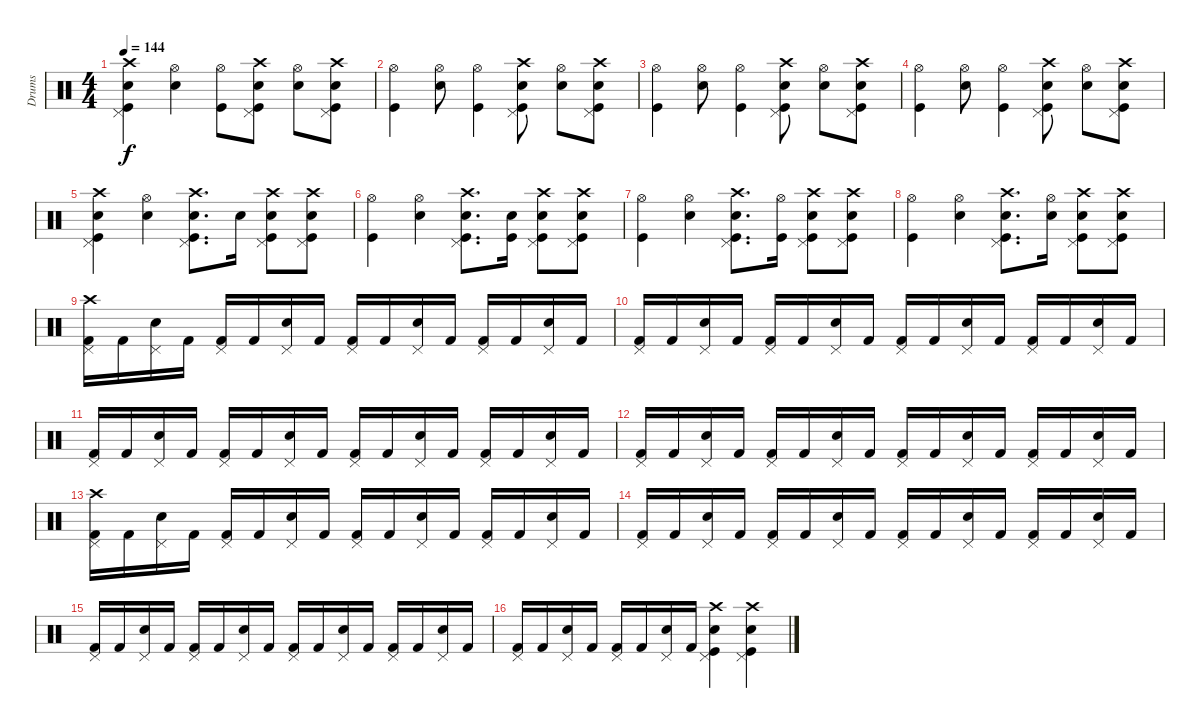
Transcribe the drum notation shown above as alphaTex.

\track ("Drums" "Drums") {instrument percussion}
\staff {score}
\articulation defaults
\ts (4 4)
\tempo 144
\clef neutral
\ks c
("Crash high (hit)" "Kick (hit)" "Snare (hit) 2" "Pedal Hi-Hat (hit)").4{dy f} ("Hi-Hat (open)" "Snare (hit) 2").4 ("Hi-Hat (open)" "Kick (hit)").8 ("Crash high (hit)" "Kick (hit)" "Pedal Hi-Hat (hit)" "Snare (hit) 2").8 ("Hi-Hat (open)" "Snare (hit) 2").8 ("Crash high (hit)" "Pedal Hi-Hat (hit)" "Kick (hit)" "Snare (hit) 2").8 |
("Hi-Hat (open)" "Kick (hit)").4 ("Hi-Hat (open)" "Snare (hit) 2").8 ("Hi-Hat (open)" "Kick (hit)").4 ("Crash high (hit)" "Kick (hit)" "Pedal Hi-Hat (hit)" "Snare (hit) 2").8 ("Hi-Hat (open)" "Snare (hit) 2").8 ("Crash high (hit)" "Pedal Hi-Hat (hit)" "Kick (hit)" "Snare (hit) 2").8 |
("Hi-Hat (open)" "Kick (hit)").4 ("Hi-Hat (open)" "Snare (hit) 2").8 ("Hi-Hat (open)" "Kick (hit)").4 ("Crash high (hit)" "Kick (hit)" "Pedal Hi-Hat (hit)" "Snare (hit) 2").8 ("Hi-Hat (open)" "Snare (hit) 2").8 ("Crash high (hit)" "Pedal Hi-Hat (hit)" "Kick (hit)" "Snare (hit) 2").8 |
("Hi-Hat (open)" "Kick (hit)").4 ("Hi-Hat (open)" "Snare (hit) 2").8 ("Hi-Hat (open)" "Kick (hit)").4 ("Crash high (hit)" "Kick (hit)" "Pedal Hi-Hat (hit)" "Snare (hit) 2").8 ("Hi-Hat (open)" "Snare (hit) 2").8 ("Crash high (hit)" "Pedal Hi-Hat (hit)" "Kick (hit)" "Snare (hit) 2").8 |
("Crash high (hit)" "Kick (hit)" "Snare (hit) 2" "Pedal Hi-Hat (hit)").4 ("Hi-Hat (open)" "Snare (hit) 2").4 ("Crash high (hit)" "Kick (hit)" "Pedal Hi-Hat (hit)" "Snare (hit) 2").8{d} "Snare (hit) 2".16 ("Crash high (hit)" "Kick (hit)" "Snare (hit) 2" "Pedal Hi-Hat (hit)").8 ("Crash high (hit)" "Pedal Hi-Hat (hit)" "Kick (hit)" "Snare (hit) 2").8 |
("Hi-Hat (open)" "Kick (hit)").4 ("Hi-Hat (open)" "Snare (hit) 2").4 ("Crash high (hit)" "Kick (hit)" "Pedal Hi-Hat (hit)" "Snare (hit) 2").8{d} ("Snare (hit) 2" "Kick (hit)").16 ("Crash high (hit)" "Kick (hit)" "Snare (hit) 2" "Pedal Hi-Hat (hit)").8 ("Crash high (hit)" "Pedal Hi-Hat (hit)" "Kick (hit)" "Snare (hit) 2").8 |
("Hi-Hat (open)" "Kick (hit)").4 ("Hi-Hat (open)" "Snare (hit) 2").4 ("Crash high (hit)" "Kick (hit)" "Pedal Hi-Hat (hit)" "Snare (hit) 2").8{d} ("Hi-Hat (open)" "Kick (hit)").16 ("Crash high (hit)" "Kick (hit)" "Snare (hit) 2" "Pedal Hi-Hat (hit)").8 ("Crash high (hit)" "Pedal Hi-Hat (hit)" "Kick (hit)" "Snare (hit) 2").8 |
("Hi-Hat (open)" "Kick (hit)").4 ("Hi-Hat (open)" "Snare (hit) 2").4 ("Crash high (hit)" "Kick (hit)" "Pedal Hi-Hat (hit)" "Snare (hit) 2").8{d} ("Hi-Hat (open)" "Snare (hit) 2").16 ("Crash high (hit)" "Kick (hit)" "Snare (hit) 2" "Pedal Hi-Hat (hit)").8 ("Crash high (hit)" "Pedal Hi-Hat (hit)" "Kick (hit)" "Snare (hit) 2").8 |
("Pedal Hi-Hat (hit)" "Kick (hit) 2" "Crash high (hit)").16 "Kick (hit) 2".16 ("Pedal Hi-Hat (hit)" "Snare (hit) 2").16 "Kick (hit) 2".16 ("Pedal Hi-Hat (hit)" "Kick (hit) 2").16 "Kick (hit) 2".16 ("Pedal Hi-Hat (hit)" "Snare (hit) 2").16 "Kick (hit) 2".16 ("Pedal Hi-Hat (hit)" "Kick (hit) 2").16 "Kick (hit) 2".16 ("Pedal Hi-Hat (hit)" "Snare (hit) 2").16 "Kick (hit) 2".16 ("Pedal Hi-Hat (hit)" "Kick (hit) 2").16 "Kick (hit) 2".16 ("Pedal Hi-Hat (hit)" "Snare (hit) 2").16 "Kick (hit) 2".16 |
("Pedal Hi-Hat (hit)" "Kick (hit) 2").16 "Kick (hit) 2".16 ("Pedal Hi-Hat (hit)" "Snare (hit) 2").16 "Kick (hit) 2".16 ("Pedal Hi-Hat (hit)" "Kick (hit) 2").16 "Kick (hit) 2".16 ("Pedal Hi-Hat (hit)" "Snare (hit) 2").16 "Kick (hit) 2".16 ("Pedal Hi-Hat (hit)" "Kick (hit) 2").16 "Kick (hit) 2".16 ("Pedal Hi-Hat (hit)" "Snare (hit) 2").16 "Kick (hit) 2".16 ("Pedal Hi-Hat (hit)" "Kick (hit) 2").16 "Kick (hit) 2".16 ("Pedal Hi-Hat (hit)" "Snare (hit) 2").16 "Kick (hit) 2".16 |
("Pedal Hi-Hat (hit)" "Kick (hit) 2").16 "Kick (hit) 2".16 ("Pedal Hi-Hat (hit)" "Snare (hit) 2").16 "Kick (hit) 2".16 ("Pedal Hi-Hat (hit)" "Kick (hit) 2").16 "Kick (hit) 2".16 ("Pedal Hi-Hat (hit)" "Snare (hit) 2").16 "Kick (hit) 2".16 ("Pedal Hi-Hat (hit)" "Kick (hit) 2").16 "Kick (hit) 2".16 ("Pedal Hi-Hat (hit)" "Snare (hit) 2").16 "Kick (hit) 2".16 ("Pedal Hi-Hat (hit)" "Kick (hit) 2").16 "Kick (hit) 2".16 ("Pedal Hi-Hat (hit)" "Snare (hit) 2").16 "Kick (hit) 2".16 |
("Pedal Hi-Hat (hit)" "Kick (hit) 2").16 "Kick (hit) 2".16 ("Pedal Hi-Hat (hit)" "Snare (hit) 2").16 "Kick (hit) 2".16 ("Pedal Hi-Hat (hit)" "Kick (hit) 2").16 "Kick (hit) 2".16 ("Pedal Hi-Hat (hit)" "Snare (hit) 2").16 "Kick (hit) 2".16 ("Pedal Hi-Hat (hit)" "Kick (hit) 2").16 "Kick (hit) 2".16 ("Pedal Hi-Hat (hit)" "Snare (hit) 2").16 "Kick (hit) 2".16 ("Pedal Hi-Hat (hit)" "Kick (hit) 2").16 "Kick (hit) 2".16 ("Pedal Hi-Hat (hit)" "Snare (hit) 2").16 "Kick (hit) 2".16 |
("Pedal Hi-Hat (hit)" "Kick (hit) 2" "Crash high (hit)").16 "Kick (hit) 2".16 ("Pedal Hi-Hat (hit)" "Snare (hit) 2").16 "Kick (hit) 2".16 ("Pedal Hi-Hat (hit)" "Kick (hit) 2").16 "Kick (hit) 2".16 ("Pedal Hi-Hat (hit)" "Snare (hit) 2").16 "Kick (hit) 2".16 ("Pedal Hi-Hat (hit)" "Kick (hit) 2").16 "Kick (hit) 2".16 ("Pedal Hi-Hat (hit)" "Snare (hit) 2").16 "Kick (hit) 2".16 ("Pedal Hi-Hat (hit)" "Kick (hit) 2").16 "Kick (hit) 2".16 ("Pedal Hi-Hat (hit)" "Snare (hit) 2").16 "Kick (hit) 2".16 |
("Pedal Hi-Hat (hit)" "Kick (hit) 2").16 "Kick (hit) 2".16 ("Pedal Hi-Hat (hit)" "Snare (hit) 2").16 "Kick (hit) 2".16 ("Pedal Hi-Hat (hit)" "Kick (hit) 2").16 "Kick (hit) 2".16 ("Pedal Hi-Hat (hit)" "Snare (hit) 2").16 "Kick (hit) 2".16 ("Pedal Hi-Hat (hit)" "Kick (hit) 2").16 "Kick (hit) 2".16 ("Pedal Hi-Hat (hit)" "Snare (hit) 2").16 "Kick (hit) 2".16 ("Pedal Hi-Hat (hit)" "Kick (hit) 2").16 "Kick (hit) 2".16 ("Pedal Hi-Hat (hit)" "Snare (hit) 2").16 "Kick (hit) 2".16 |
("Pedal Hi-Hat (hit)" "Kick (hit) 2").16 "Kick (hit) 2".16 ("Pedal Hi-Hat (hit)" "Snare (hit) 2").16 "Kick (hit) 2".16 ("Pedal Hi-Hat (hit)" "Kick (hit) 2").16 "Kick (hit) 2".16 ("Pedal Hi-Hat (hit)" "Snare (hit) 2").16 "Kick (hit) 2".16 ("Pedal Hi-Hat (hit)" "Kick (hit) 2").16 "Kick (hit) 2".16 ("Pedal Hi-Hat (hit)" "Snare (hit) 2").16 "Kick (hit) 2".16 ("Pedal Hi-Hat (hit)" "Kick (hit) 2").16 "Kick (hit) 2".16 ("Pedal Hi-Hat (hit)" "Snare (hit) 2").16 "Kick (hit) 2".16 |
("Pedal Hi-Hat (hit)" "Kick (hit) 2").16 "Kick (hit) 2".16 ("Pedal Hi-Hat (hit)" "Snare (hit) 2").16 "Kick (hit) 2".16 ("Pedal Hi-Hat (hit)" "Kick (hit) 2").16 "Kick (hit) 2".16 ("Pedal Hi-Hat (hit)" "Snare (hit) 2").16 "Kick (hit) 2".16 ("Crash high (hit)" "Kick (hit)" "Snare (hit) 2" "Pedal Hi-Hat (hit)").4 ("Crash high (hit)" "Kick (hit)" "Snare (hit) 2" "Pedal Hi-Hat (hit)").4
